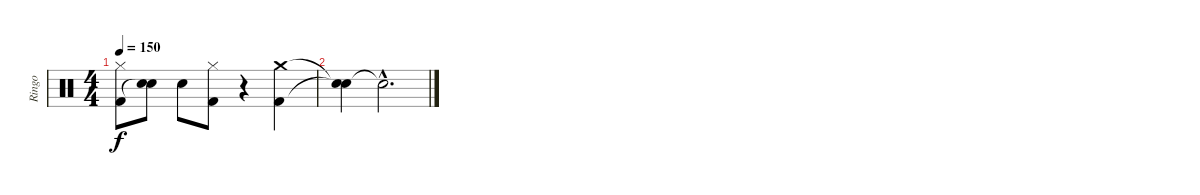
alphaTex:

\track ("Ringo" "Ringo") {instrument percussion}
\staff {score}
\articulation defaults
\ts (4 4)
\tempo 150
\clef neutral
\ks c
("Hi-Hat (closed)" "Kick (hit) 2").8{dy f} ("Snare (hit) 2" "Snare (hit)"{t}).8 "Snare (hit) 2".8 ("Hi-Hat (closed)" "Kick (hit) 2").8 r.4 ("Crash medium (hit)" "Kick (hit) 2").4 |
("Snare (hit)"{t} "Snare (hit)"{t}).4 "Snare (hit)"{hac t}.2{d}
